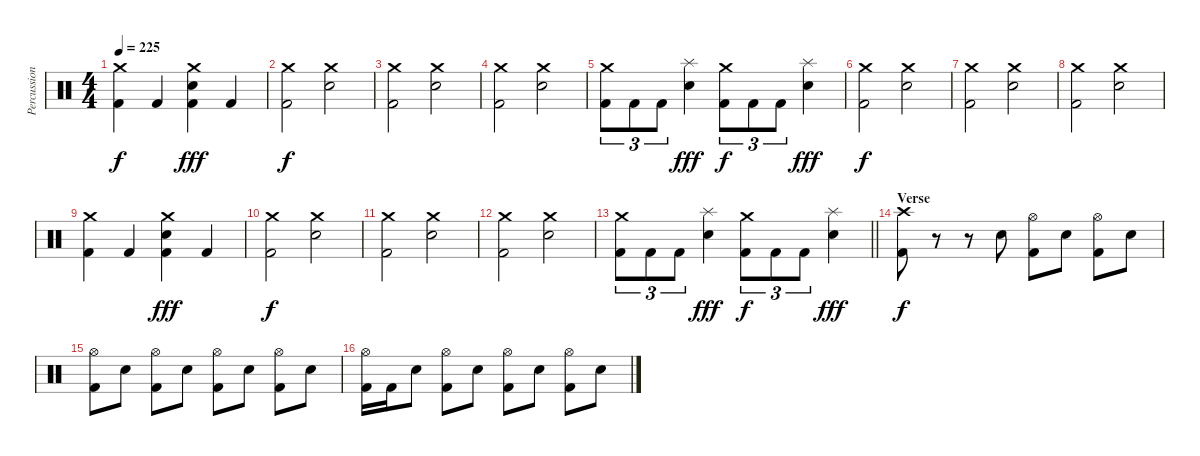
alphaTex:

\track ("Percussion" "Percussion") {instrument percussion}
\staff {score}
\articulation defaults
\ts (4 4)
\tempo 225
\clef neutral
\ks c
("Crash medium (hit)" "Kick (hit) 2").4{dy f} "Kick (hit) 2".4 ("Crash medium (hit)" "Electric Snare (hit)" "Kick (hit) 2").4{dy fff} "Kick (hit) 2".4 |
("Crash medium (hit)" "Kick (hit) 2").2{dy f} ("Crash medium (hit)" "Electric Snare (hit)").2 |
("Crash medium (hit)" "Kick (hit) 2").2 ("Crash medium (hit)" "Electric Snare (hit)").2 |
("Crash medium (hit)" "Kick (hit) 2").2 ("Crash medium (hit)" "Electric Snare (hit)").2 |
("Crash medium (hit)" "Kick (hit) 2").8{tu (3 2)} "Kick (hit) 2".8{tu (3 2)} "Kick (hit) 2".8{tu (3 2)} ("Splash (hit)" "Electric Snare (hit)").4{dy fff} ("Crash medium (hit)" "Kick (hit) 2").8{tu (3 2) dy f} "Kick (hit) 2".8{tu (3 2)} "Kick (hit) 2".8{tu (3 2)} ("Splash (hit)" "Electric Snare (hit)").4{dy fff} |
("Crash medium (hit)" "Kick (hit) 2").2{dy f} ("Crash medium (hit)" "Electric Snare (hit)").2 |
("Crash medium (hit)" "Kick (hit) 2").2 ("Crash medium (hit)" "Electric Snare (hit)").2 |
("Crash medium (hit)" "Kick (hit) 2").2 ("Crash medium (hit)" "Electric Snare (hit)").2 |
("Crash medium (hit)" "Kick (hit) 2").4 "Kick (hit) 2".4 ("Crash medium (hit)" "Electric Snare (hit)" "Kick (hit) 2").4{dy fff} "Kick (hit) 2".4 |
("Crash medium (hit)" "Kick (hit) 2").2{dy f} ("Crash medium (hit)" "Electric Snare (hit)").2 |
("Crash medium (hit)" "Kick (hit) 2").2 ("Crash medium (hit)" "Electric Snare (hit)").2 |
("Crash medium (hit)" "Kick (hit) 2").2 ("Crash medium (hit)" "Electric Snare (hit)").2 |
\barLineRight lightlight
("Crash medium (hit)" "Kick (hit) 2").8{tu (3 2)} "Kick (hit) 2".8{tu (3 2)} "Kick (hit) 2".8{tu (3 2)} ("Splash (hit)" "Electric Snare (hit)").4{dy fff} ("Crash medium (hit)" "Kick (hit) 2").8{tu (3 2) dy f} "Kick (hit) 2".8{tu (3 2)} "Kick (hit) 2".8{tu (3 2)} ("Splash (hit)" "Electric Snare (hit)").4{dy fff} |
\section ("" "Verse")
("Crash high (hit)" "Kick (hit) 2").8{dy f} r.8 r.8 "Electric Snare (hit)".8 ("Hi-Hat (open)" "Kick (hit) 2").8 "Electric Snare (hit)".8 ("Hi-Hat (open)" "Kick (hit) 2").8 "Electric Snare (hit)".8 |
("Hi-Hat (open)" "Kick (hit) 2").8 "Electric Snare (hit)".8 ("Hi-Hat (open)" "Kick (hit) 2").8 "Electric Snare (hit)".8 ("Hi-Hat (open)" "Kick (hit) 2").8 "Electric Snare (hit)".8 ("Hi-Hat (open)" "Kick (hit) 2").8 "Electric Snare (hit)".8 |
("Hi-Hat (open)" "Kick (hit) 2").16 "Kick (hit) 2".16 "Electric Snare (hit)".8 ("Hi-Hat (open)" "Kick (hit) 2").8 "Electric Snare (hit)".8 ("Hi-Hat (open)" "Kick (hit) 2").8 "Electric Snare (hit)".8 ("Hi-Hat (open)" "Kick (hit) 2").8 "Electric Snare (hit)".8
